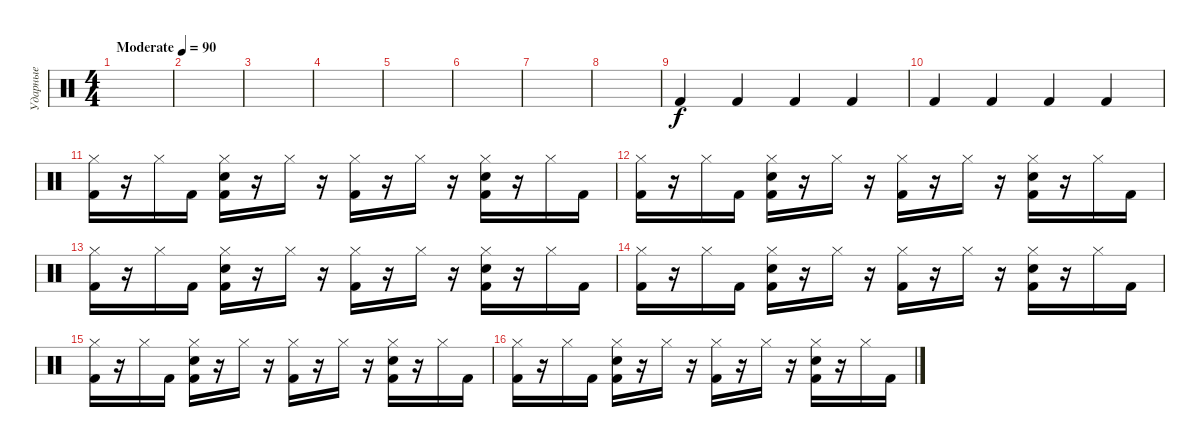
\track ("Ударные" "Ударные") {instrument percussion}
\staff {score}
\articulation defaults
\ts (4 4)
\tempo (90 "Moderate")
\clef neutral
\ks c
|
|
|
|
|
|
|
|
"Kick (hit) 2".4 "Kick (hit) 2".4 "Kick (hit) 2".4 "Kick (hit) 2".4 |
"Kick (hit) 2".4 "Kick (hit) 2".4 "Kick (hit) 2".4 "Kick (hit) 2".4 |
("Hi-Hat (closed)" "Kick (hit) 2").16 r.16 "Hi-Hat (closed)".16 "Kick (hit) 2".16 ("Hi-Hat (closed)" "Electric Snare (hit)" "Kick (hit) 2").16 r.16 "Hi-Hat (closed)".16 r.16 ("Hi-Hat (closed)" "Kick (hit) 2").16 r.16 "Hi-Hat (closed)".16 r.16 ("Hi-Hat (closed)" "Electric Snare (hit)" "Kick (hit) 2").16 r.16 "Hi-Hat (closed)".16 "Kick (hit) 2".16 |
("Hi-Hat (closed)" "Kick (hit) 2").16 r.16 "Hi-Hat (closed)".16 "Kick (hit) 2".16 ("Hi-Hat (closed)" "Electric Snare (hit)" "Kick (hit) 2").16 r.16 "Hi-Hat (closed)".16 r.16 ("Hi-Hat (closed)" "Kick (hit) 2").16 r.16 "Hi-Hat (closed)".16 r.16 ("Hi-Hat (closed)" "Electric Snare (hit)" "Kick (hit) 2").16 r.16 "Hi-Hat (closed)".16 "Kick (hit) 2".16 |
("Hi-Hat (closed)" "Kick (hit) 2").16 r.16 "Hi-Hat (closed)".16 "Kick (hit) 2".16 ("Hi-Hat (closed)" "Electric Snare (hit)" "Kick (hit) 2").16 r.16 "Hi-Hat (closed)".16 r.16 ("Hi-Hat (closed)" "Kick (hit) 2").16 r.16 "Hi-Hat (closed)".16 r.16 ("Hi-Hat (closed)" "Electric Snare (hit)" "Kick (hit) 2").16 r.16 "Hi-Hat (closed)".16 "Kick (hit) 2".16 |
("Hi-Hat (closed)" "Kick (hit) 2").16 r.16 "Hi-Hat (closed)".16 "Kick (hit) 2".16 ("Hi-Hat (closed)" "Electric Snare (hit)" "Kick (hit) 2").16 r.16 "Hi-Hat (closed)".16 r.16 ("Hi-Hat (closed)" "Kick (hit) 2").16 r.16 "Hi-Hat (closed)".16 r.16 ("Hi-Hat (closed)" "Electric Snare (hit)" "Kick (hit) 2").16 r.16 "Hi-Hat (closed)".16 "Kick (hit) 2".16 |
("Hi-Hat (closed)" "Kick (hit) 2").16 r.16 "Hi-Hat (closed)".16 "Kick (hit) 2".16 ("Hi-Hat (closed)" "Electric Snare (hit)" "Kick (hit) 2").16 r.16 "Hi-Hat (closed)".16 r.16 ("Hi-Hat (closed)" "Kick (hit) 2").16 r.16 "Hi-Hat (closed)".16 r.16 ("Hi-Hat (closed)" "Electric Snare (hit)" "Kick (hit) 2").16 r.16 "Hi-Hat (closed)".16 "Kick (hit) 2".16 |
("Hi-Hat (closed)" "Kick (hit) 2").16 r.16 "Hi-Hat (closed)".16 "Kick (hit) 2".16 ("Hi-Hat (closed)" "Electric Snare (hit)" "Kick (hit) 2").16 r.16 "Hi-Hat (closed)".16 r.16 ("Hi-Hat (closed)" "Kick (hit) 2").16 r.16 "Hi-Hat (closed)".16 r.16 ("Hi-Hat (closed)" "Electric Snare (hit)" "Kick (hit) 2").16 r.16 "Hi-Hat (closed)".16 "Kick (hit) 2".16
